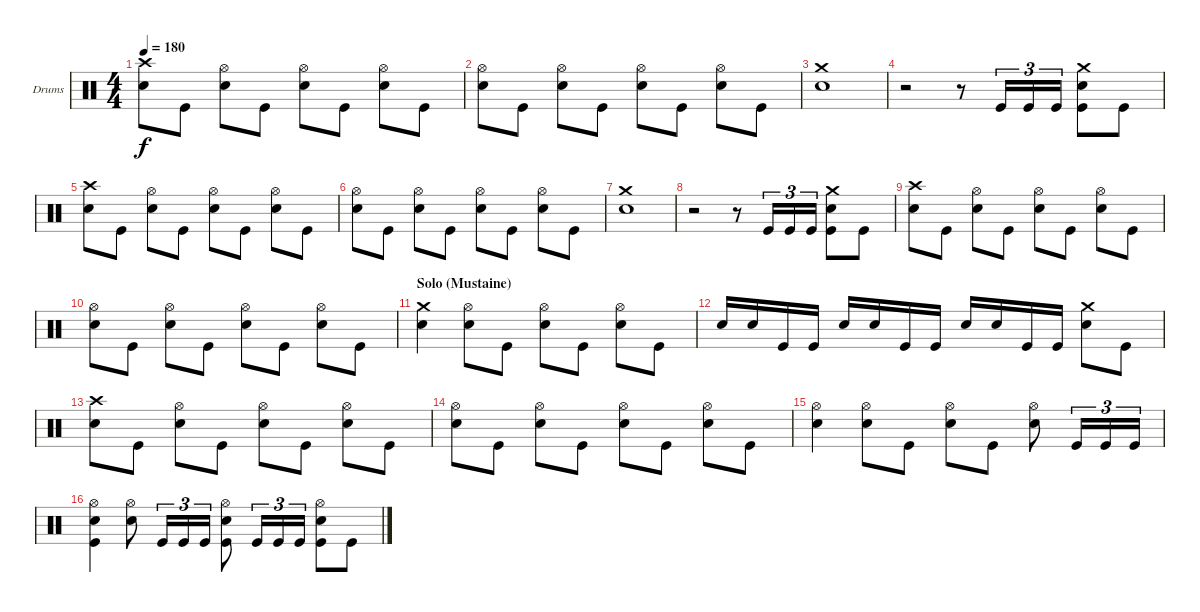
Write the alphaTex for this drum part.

\bracketExtendMode groupsimilarinstruments
\firstSystemTrackNameOrientation horizontal
\otherSystemsTrackNameOrientation horizontal
\track ("Drumkit" "Drums") {instrument percussion}
\staff {score}
\articulation defaults
\ts (4 4)
\tempo 180
\clef neutral
\ks c
("Crash high (hit)" "Snare (hit) 2").8{dy f} "Kick (hit)".8 ("Hi-Hat (open)" "Snare (hit) 2").8 "Kick (hit)".8 ("Hi-Hat (open)" "Snare (hit) 2").8 "Kick (hit)".8 ("Hi-Hat (open)" "Snare (hit) 2").8 "Kick (hit)".8 |
("Hi-Hat (open)" "Snare (hit) 2").8 "Kick (hit)".8 ("Hi-Hat (open)" "Snare (hit) 2").8 "Kick (hit)".8 ("Hi-Hat (open)" "Snare (hit) 2").8 "Kick (hit)".8 ("Hi-Hat (open)" "Snare (hit) 2").8 "Kick (hit)".8 |
("Crash medium (hit)" "Snare (hit) 2").1 |
r.2 r.8 "Kick (hit)".16{tu (3 2)} "Kick (hit)".16{tu (3 2)} "Kick (hit)".16{tu (3 2)} ("Crash medium (hit)" "Snare (hit) 2" "Kick (hit)").8 "Kick (hit)".8 |
("Crash high (hit)" "Snare (hit) 2").8 "Kick (hit)".8 ("Hi-Hat (open)" "Snare (hit) 2").8 "Kick (hit)".8 ("Hi-Hat (open)" "Snare (hit) 2").8 "Kick (hit)".8 ("Hi-Hat (open)" "Snare (hit) 2").8 "Kick (hit)".8 |
("Hi-Hat (open)" "Snare (hit) 2").8 "Kick (hit)".8 ("Hi-Hat (open)" "Snare (hit) 2").8 "Kick (hit)".8 ("Hi-Hat (open)" "Snare (hit) 2").8 "Kick (hit)".8 ("Hi-Hat (open)" "Snare (hit) 2").8 "Kick (hit)".8 |
("Crash medium (hit)" "Snare (hit) 2").1 |
r.2 r.8 "Kick (hit)".16{tu (3 2)} "Kick (hit)".16{tu (3 2)} "Kick (hit)".16{tu (3 2)} ("Crash medium (hit)" "Snare (hit) 2" "Kick (hit)").8 "Kick (hit)".8 |
("Crash high (hit)" "Snare (hit) 2").8 "Kick (hit)".8 ("Hi-Hat (open)" "Snare (hit) 2").8 "Kick (hit)".8 ("Hi-Hat (open)" "Snare (hit) 2").8 "Kick (hit)".8 ("Hi-Hat (open)" "Snare (hit) 2").8 "Kick (hit)".8 |
("Hi-Hat (open)" "Snare (hit) 2").8 "Kick (hit)".8 ("Hi-Hat (open)" "Snare (hit) 2").8 "Kick (hit)".8 ("Hi-Hat (open)" "Snare (hit) 2").8 "Kick (hit)".8 ("Hi-Hat (open)" "Snare (hit) 2").8 "Kick (hit)".8 |
\section ("" "Solo (Mustaine)")
("Crash medium (hit)" "Snare (hit) 2").4 ("Hi-Hat (open)" "Snare (hit) 2").8 "Kick (hit)".8 ("Hi-Hat (open)" "Snare (hit) 2").8 "Kick (hit)".8 ("Hi-Hat (open)" "Snare (hit) 2").8 "Kick (hit)".8 |
"Snare (hit) 2".16 "Snare (hit) 2".16 "Kick (hit)".16 "Kick (hit)".16 "Snare (hit) 2".16 "Snare (hit) 2".16 "Kick (hit)".16 "Kick (hit)".16 "Snare (hit) 2".16 "Snare (hit) 2".16 "Kick (hit)".16 "Kick (hit)".16 ("Crash medium (hit)" "Snare (hit) 2").8 "Kick (hit)".8 |
("Crash high (hit)" "Snare (hit) 2").8 "Kick (hit)".8 ("Hi-Hat (open)" "Snare (hit) 2").8 "Kick (hit)".8 ("Hi-Hat (open)" "Snare (hit) 2").8 "Kick (hit)".8 ("Hi-Hat (open)" "Snare (hit) 2").8 "Kick (hit)".8 |
("Hi-Hat (open)" "Snare (hit) 2").8 "Kick (hit)".8 ("Hi-Hat (open)" "Snare (hit) 2").8 "Kick (hit)".8 ("Hi-Hat (open)" "Snare (hit) 2").8 "Kick (hit)".8 ("Hi-Hat (open)" "Snare (hit) 2").8 "Kick (hit)".8 |
("Hi-Hat (open)" "Snare (hit) 2").4 ("Hi-Hat (open)" "Snare (hit) 2").8 "Kick (hit)".8 ("Hi-Hat (open)" "Snare (hit) 2").8 "Kick (hit)".8 ("Hi-Hat (open)" "Snare (hit) 2").8 "Kick (hit)".16{tu (3 2)} "Kick (hit)".16{tu (3 2)} "Kick (hit)".16{tu (3 2)} |
("Hi-Hat (open)" "Snare (hit) 2" "Kick (hit)").4 ("Hi-Hat (open)" "Snare (hit) 2").8 "Kick (hit)".16{tu (3 2)} "Kick (hit)".16{tu (3 2)} "Kick (hit)".16{tu (3 2)} ("Hi-Hat (open)" "Snare (hit) 2" "Kick (hit)").8 "Kick (hit)".16{tu (3 2)} "Kick (hit)".16{tu (3 2)} "Kick (hit)".16{tu (3 2)} ("Hi-Hat (open)" "Snare (hit) 2" "Kick (hit)").8 "Kick (hit)".8
